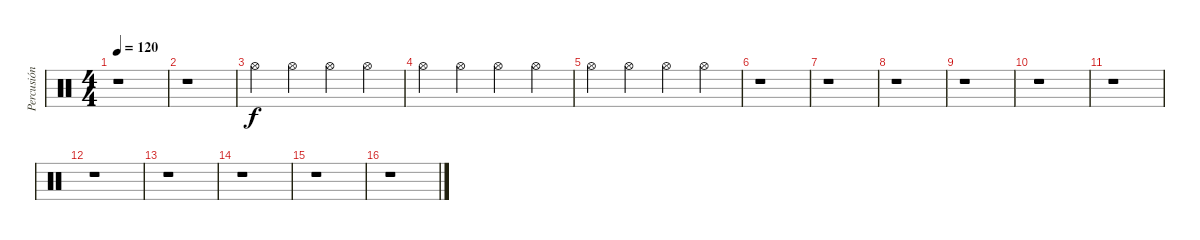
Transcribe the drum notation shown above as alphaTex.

\track ("Percusión" "Percusión") {instrument percussion}
\staff {score}
\articulation defaults
\ts (4 4)
\tempo 120
\clef neutral
\ks c
r.1{dy f} |
r.1 |
"Hi-Hat (open)".4 "Hi-Hat (open)".4 "Hi-Hat (open)".4 "Hi-Hat (open)".4 |
"Hi-Hat (open)".4 "Hi-Hat (open)".4 "Hi-Hat (open)".4 "Hi-Hat (open)".4 |
"Hi-Hat (open)".4 "Hi-Hat (open)".4 "Hi-Hat (open)".4 "Hi-Hat (open)".4 |
r.1 |
r.1 |
r.1 |
r.1 |
r.1 |
r.1 |
r.1 |
r.1 |
r.1 |
r.1 |
r.1
